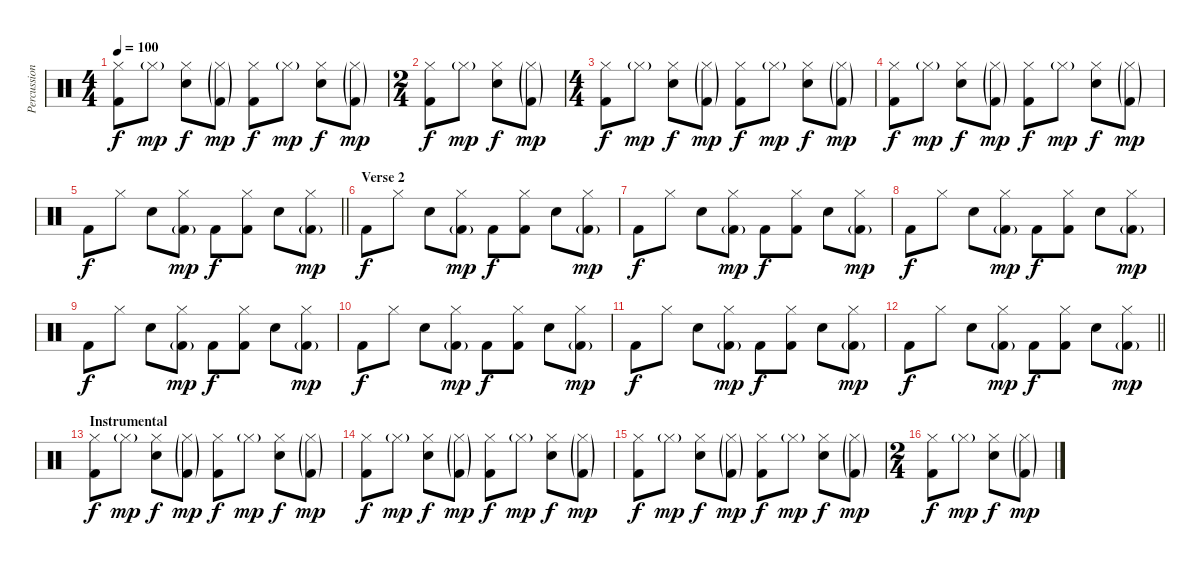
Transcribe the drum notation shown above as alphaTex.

\track ("Percussion" "Percussion") {instrument percussion}
\staff {score}
\articulation defaults
\ts (4 4)
\tempo 100
\clef neutral
\ks c
("Hi-Hat (closed)" "Kick (hit) 2").8{dy f} "Hi-Hat (closed)"{g}.8{dy mp} ("Hi-Hat (closed)" "Snare (hit) 2").8{dy f} ("Hi-Hat (closed)"{g} "Kick (hit) 2"{g}).8{dy mp} ("Hi-Hat (closed)" "Kick (hit) 2").8{dy f} "Hi-Hat (closed)"{g}.8{dy mp} ("Hi-Hat (closed)" "Snare (hit) 2").8{dy f} ("Hi-Hat (closed)"{g} "Kick (hit) 2"{g}).8{dy mp} |
\ts (2 4)
("Hi-Hat (closed)" "Kick (hit) 2").8{dy f} "Hi-Hat (closed)"{g}.8{dy mp} ("Hi-Hat (closed)" "Snare (hit) 2").8{dy f} ("Hi-Hat (closed)"{g} "Kick (hit) 2"{g}).8{dy mp} |
\ts (4 4)
("Hi-Hat (closed)" "Kick (hit) 2").8{dy f} "Hi-Hat (closed)"{g}.8{dy mp} ("Hi-Hat (closed)" "Snare (hit) 2").8{dy f} ("Hi-Hat (closed)"{g} "Kick (hit) 2"{g}).8{dy mp} ("Hi-Hat (closed)" "Kick (hit) 2").8{dy f} "Hi-Hat (closed)"{g}.8{dy mp} ("Hi-Hat (closed)" "Snare (hit) 2").8{dy f} ("Hi-Hat (closed)"{g} "Kick (hit) 2"{g}).8{dy mp} |
("Hi-Hat (closed)" "Kick (hit) 2").8{dy f} "Hi-Hat (closed)"{g}.8{dy mp} ("Hi-Hat (closed)" "Snare (hit) 2").8{dy f} ("Hi-Hat (closed)"{g} "Kick (hit) 2"{g}).8{dy mp} ("Hi-Hat (closed)" "Kick (hit) 2").8{dy f} "Hi-Hat (closed)"{g}.8{dy mp} ("Hi-Hat (closed)" "Snare (hit) 2").8{dy f} ("Hi-Hat (closed)"{g} "Kick (hit) 2"{g}).8{dy mp} |
\barLineRight lightlight "Kick (hit) 2".8{dy f} "Hi-Hat (closed)".8 "Snare (hit) 2".8
("Hi-Hat (closed)" "Kick (hit) 2"{g}).8{dy mp} "Kick (hit) 2".8{dy f} ("Hi-Hat (closed)" "Kick (hit) 2").8 "Snare (hit) 2".8 ("Hi-Hat (closed)" "Kick (hit) 2"{g}).8{dy mp} |
\section ("" "Verse 2")
"Kick (hit) 2".8{dy f} "Hi-Hat (closed)".8 "Snare (hit) 2".8 ("Hi-Hat (closed)" "Kick (hit) 2"{g}).8{dy mp} "Kick (hit) 2".8{dy f} ("Hi-Hat (closed)" "Kick (hit) 2").8 "Snare (hit) 2".8 ("Hi-Hat (closed)" "Kick (hit) 2"{g}).8{dy mp} |
"Kick (hit) 2".8{dy f} "Hi-Hat (closed)".8 "Snare (hit) 2".8 ("Hi-Hat (closed)" "Kick (hit) 2"{g}).8{dy mp} "Kick (hit) 2".8{dy f} ("Hi-Hat (closed)" "Kick (hit) 2").8 "Snare (hit) 2".8 ("Hi-Hat (closed)" "Kick (hit) 2"{g}).8{dy mp} |
"Kick (hit) 2".8{dy f} "Hi-Hat (closed)".8 "Snare (hit) 2".8 ("Hi-Hat (closed)" "Kick (hit) 2"{g}).8{dy mp} "Kick (hit) 2".8{dy f} ("Hi-Hat (closed)" "Kick (hit) 2").8 "Snare (hit) 2".8 ("Hi-Hat (closed)" "Kick (hit) 2"{g}).8{dy mp} |
"Kick (hit) 2".8{dy f} "Hi-Hat (closed)".8 "Snare (hit) 2".8 ("Hi-Hat (closed)" "Kick (hit) 2"{g}).8{dy mp} "Kick (hit) 2".8{dy f} ("Hi-Hat (closed)" "Kick (hit) 2").8 "Snare (hit) 2".8 ("Hi-Hat (closed)" "Kick (hit) 2"{g}).8{dy mp} |
"Kick (hit) 2".8{dy f} "Hi-Hat (closed)".8 "Snare (hit) 2".8 ("Hi-Hat (closed)" "Kick (hit) 2"{g}).8{dy mp} "Kick (hit) 2".8{dy f} ("Hi-Hat (closed)" "Kick (hit) 2").8 "Snare (hit) 2".8 ("Hi-Hat (closed)" "Kick (hit) 2"{g}).8{dy mp} |
"Kick (hit) 2".8{dy f} "Hi-Hat (closed)".8 "Snare (hit) 2".8 ("Hi-Hat (closed)" "Kick (hit) 2"{g}).8{dy mp} "Kick (hit) 2".8{dy f} ("Hi-Hat (closed)" "Kick (hit) 2").8 "Snare (hit) 2".8 ("Hi-Hat (closed)" "Kick (hit) 2"{g}).8{dy mp} |
\barLineRight lightlight "Kick (hit) 2".8{dy f} "Hi-Hat (closed)".8 "Snare (hit) 2".8
("Hi-Hat (closed)" "Kick (hit) 2"{g}).8{dy mp} "Kick (hit) 2".8{dy f} ("Hi-Hat (closed)" "Kick (hit) 2").8 "Snare (hit) 2".8 ("Hi-Hat (closed)" "Kick (hit) 2"{g}).8{dy mp} |
\section ("" "Instrumental")
("Hi-Hat (closed)" "Kick (hit) 2").8{dy f} "Hi-Hat (closed)"{g}.8{dy mp} ("Hi-Hat (closed)" "Snare (hit) 2").8{dy f} ("Hi-Hat (closed)"{g} "Kick (hit) 2"{g}).8{dy mp} ("Hi-Hat (closed)" "Kick (hit) 2").8{dy f} "Hi-Hat (closed)"{g}.8{dy mp} ("Hi-Hat (closed)" "Snare (hit) 2").8{dy f} ("Hi-Hat (closed)"{g} "Kick (hit) 2"{g}).8{dy mp} |
("Hi-Hat (closed)" "Kick (hit) 2").8{dy f} "Hi-Hat (closed)"{g}.8{dy mp} ("Hi-Hat (closed)" "Snare (hit) 2").8{dy f} ("Hi-Hat (closed)"{g} "Kick (hit) 2"{g}).8{dy mp} ("Hi-Hat (closed)" "Kick (hit) 2").8{dy f} "Hi-Hat (closed)"{g}.8{dy mp} ("Hi-Hat (closed)" "Snare (hit) 2").8{dy f} ("Hi-Hat (closed)"{g} "Kick (hit) 2"{g}).8{dy mp} |
("Hi-Hat (closed)" "Kick (hit) 2").8{dy f} "Hi-Hat (closed)"{g}.8{dy mp} ("Hi-Hat (closed)" "Snare (hit) 2").8{dy f} ("Hi-Hat (closed)"{g} "Kick (hit) 2"{g}).8{dy mp} ("Hi-Hat (closed)" "Kick (hit) 2").8{dy f} "Hi-Hat (closed)"{g}.8{dy mp} ("Hi-Hat (closed)" "Snare (hit) 2").8{dy f} ("Hi-Hat (closed)"{g} "Kick (hit) 2"{g}).8{dy mp} |
\ts (2 4)
("Hi-Hat (closed)" "Kick (hit) 2").8{dy f} "Hi-Hat (closed)"{g}.8{dy mp} ("Hi-Hat (closed)" "Snare (hit) 2").8{dy f} ("Hi-Hat (closed)"{g} "Kick (hit) 2"{g}).8{dy mp}
